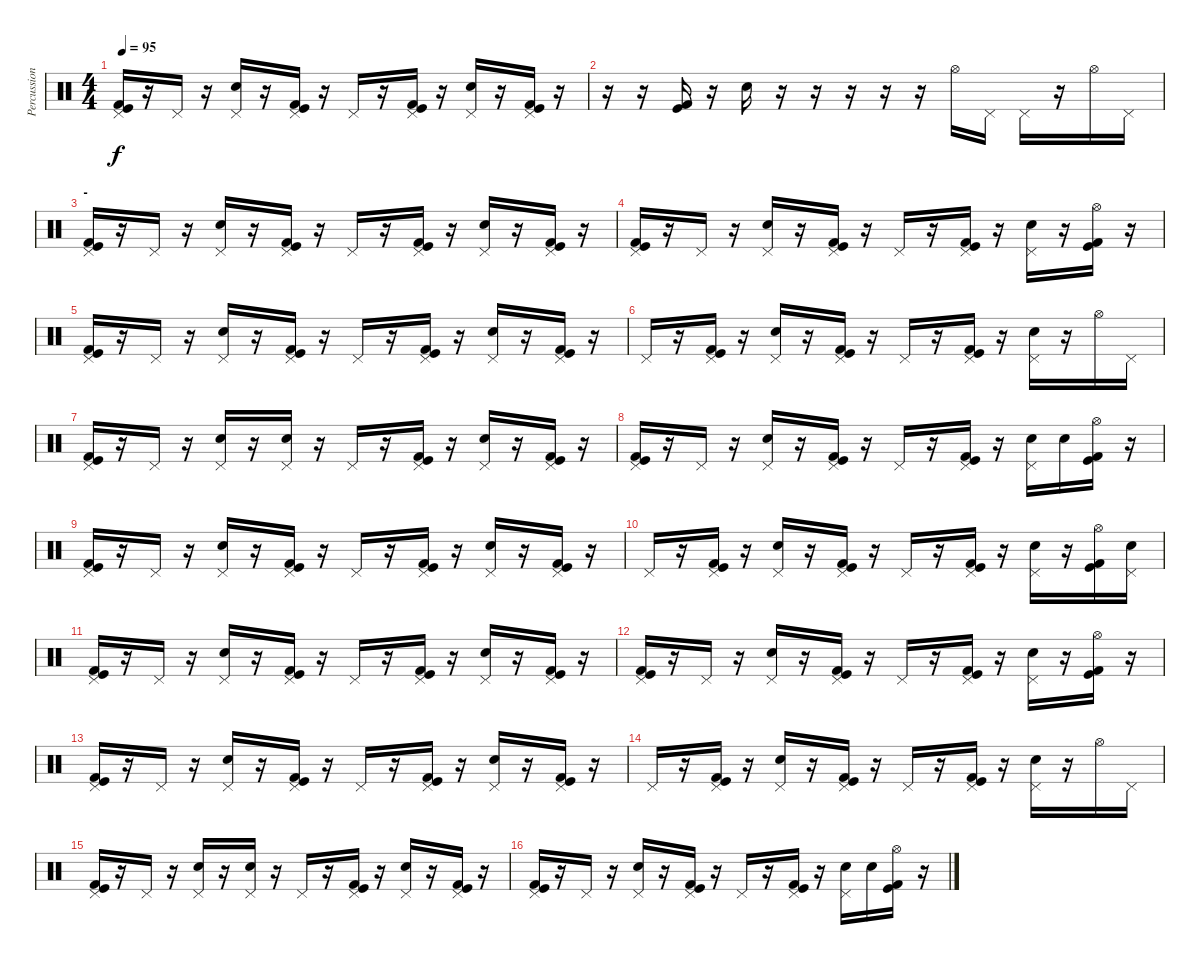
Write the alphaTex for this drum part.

\track ("Percussion" "Percussion") {instrument percussion}
\staff {score}
\articulation defaults
\ts (4 4)
\tempo 95
\clef neutral
\ks c
("Pedal Hi-Hat (hit)" "Kick (hit) 2" "Kick (hit)").16{dy f} r.16 "Pedal Hi-Hat (hit)".16 r.16 ("Pedal Hi-Hat (hit)" "Snare (hit) 2").16 r.16 ("Pedal Hi-Hat (hit)" "Kick (hit) 2" "Kick (hit)").16 r.16 "Pedal Hi-Hat (hit)".16 r.16 ("Pedal Hi-Hat (hit)" "Kick (hit) 2" "Kick (hit)").16 r.16 ("Pedal Hi-Hat (hit)" "Snare (hit) 2").16 r.16 ("Pedal Hi-Hat (hit)" "Kick (hit) 2" "Kick (hit)").16 r.16 |
r.16 r.16 ("Kick (hit) 2" "Kick (hit)").16 r.16 "Snare (hit) 2".16 r.16 r.16 r.16 r.16 r.16 "Hi-Hat (open)".16 "Pedal Hi-Hat (hit)".16 "Pedal Hi-Hat (hit)".16 r.16 "Hi-Hat (open)".16 "Pedal Hi-Hat (hit)".16 |
\section ("" "-")
("Pedal Hi-Hat (hit)" "Kick (hit) 2" "Kick (hit)").16 r.16 "Pedal Hi-Hat (hit)".16 r.16 ("Pedal Hi-Hat (hit)" "Snare (hit) 2").16 r.16 ("Pedal Hi-Hat (hit)" "Kick (hit) 2" "Kick (hit)").16 r.16 "Pedal Hi-Hat (hit)".16 r.16 ("Pedal Hi-Hat (hit)" "Kick (hit) 2" "Kick (hit)").16 r.16 ("Pedal Hi-Hat (hit)" "Snare (hit) 2").16 r.16 ("Pedal Hi-Hat (hit)" "Kick (hit) 2" "Kick (hit)").16 r.16 |
("Pedal Hi-Hat (hit)" "Kick (hit) 2" "Kick (hit)").16 r.16 "Pedal Hi-Hat (hit)".16 r.16 ("Pedal Hi-Hat (hit)" "Snare (hit) 2").16 r.16 ("Pedal Hi-Hat (hit)" "Kick (hit) 2" "Kick (hit)").16 r.16 "Pedal Hi-Hat (hit)".16 r.16 ("Pedal Hi-Hat (hit)" "Kick (hit) 2" "Kick (hit)").16 r.16 ("Pedal Hi-Hat (hit)" "Snare (hit) 2").16 r.16 ("Hi-Hat (open)" "Kick (hit) 2" "Kick (hit)").16 r.16 |
("Pedal Hi-Hat (hit)" "Kick (hit) 2" "Kick (hit)").16 r.16 "Pedal Hi-Hat (hit)".16 r.16 ("Pedal Hi-Hat (hit)" "Snare (hit) 2").16 r.16 ("Pedal Hi-Hat (hit)" "Kick (hit) 2" "Kick (hit)").16 r.16 "Pedal Hi-Hat (hit)".16 r.16 ("Pedal Hi-Hat (hit)" "Kick (hit) 2" "Kick (hit)").16 r.16 ("Pedal Hi-Hat (hit)" "Snare (hit) 2").16 r.16 ("Pedal Hi-Hat (hit)" "Kick (hit) 2" "Kick (hit)").16 r.16 |
"Pedal Hi-Hat (hit)".16 r.16 ("Pedal Hi-Hat (hit)" "Kick (hit) 2" "Kick (hit)").16 r.16 ("Pedal Hi-Hat (hit)" "Snare (hit) 2").16 r.16 ("Pedal Hi-Hat (hit)" "Kick (hit) 2" "Kick (hit)").16 r.16 "Pedal Hi-Hat (hit)".16 r.16 ("Pedal Hi-Hat (hit)" "Kick (hit) 2" "Kick (hit)").16 r.16 ("Pedal Hi-Hat (hit)" "Snare (hit) 2").16 r.16 "Hi-Hat (open)".16 "Pedal Hi-Hat (hit)".16 |
("Pedal Hi-Hat (hit)" "Kick (hit) 2" "Kick (hit)").16 r.16 "Pedal Hi-Hat (hit)".16 r.16 ("Pedal Hi-Hat (hit)" "Snare (hit) 2").16 r.16 ("Pedal Hi-Hat (hit)" "Snare (hit) 2").16 r.16 "Pedal Hi-Hat (hit)".16 r.16 ("Pedal Hi-Hat (hit)" "Kick (hit) 2" "Kick (hit)").16 r.16 ("Pedal Hi-Hat (hit)" "Snare (hit) 2").16 r.16 ("Pedal Hi-Hat (hit)" "Kick (hit) 2" "Kick (hit)").16 r.16 |
("Pedal Hi-Hat (hit)" "Kick (hit) 2" "Kick (hit)").16 r.16 "Pedal Hi-Hat (hit)".16 r.16 ("Pedal Hi-Hat (hit)" "Snare (hit) 2").16 r.16 ("Pedal Hi-Hat (hit)" "Kick (hit) 2" "Kick (hit)").16 r.16 "Pedal Hi-Hat (hit)".16 r.16 ("Pedal Hi-Hat (hit)" "Kick (hit) 2" "Kick (hit)").16 r.16 ("Pedal Hi-Hat (hit)" "Snare (hit) 2").16 "Snare (hit) 2".16 ("Hi-Hat (open)" "Kick (hit) 2" "Kick (hit)").16 r.16 |
("Pedal Hi-Hat (hit)" "Kick (hit) 2" "Kick (hit)").16 r.16 "Pedal Hi-Hat (hit)".16 r.16 ("Pedal Hi-Hat (hit)" "Snare (hit) 2").16 r.16 ("Pedal Hi-Hat (hit)" "Kick (hit) 2" "Kick (hit)").16 r.16 "Pedal Hi-Hat (hit)".16 r.16 ("Pedal Hi-Hat (hit)" "Kick (hit) 2" "Kick (hit)").16 r.16 ("Pedal Hi-Hat (hit)" "Snare (hit) 2").16 r.16 ("Pedal Hi-Hat (hit)" "Kick (hit) 2" "Kick (hit)").16 r.16 |
"Pedal Hi-Hat (hit)".16 r.16 ("Pedal Hi-Hat (hit)" "Kick (hit) 2" "Kick (hit)").16 r.16 ("Pedal Hi-Hat (hit)" "Snare (hit) 2").16 r.16 ("Pedal Hi-Hat (hit)" "Kick (hit) 2" "Kick (hit)").16 r.16 "Pedal Hi-Hat (hit)".16 r.16 ("Pedal Hi-Hat (hit)" "Kick (hit) 2" "Kick (hit)").16 r.16 ("Pedal Hi-Hat (hit)" "Snare (hit) 2").16 r.16 ("Hi-Hat (open)" "Kick (hit) 2" "Kick (hit)").16 ("Pedal Hi-Hat (hit)" "Snare (hit) 2").16 |
("Pedal Hi-Hat (hit)" "Kick (hit) 2" "Kick (hit)").16 r.16 "Pedal Hi-Hat (hit)".16 r.16 ("Pedal Hi-Hat (hit)" "Snare (hit) 2").16 r.16 ("Pedal Hi-Hat (hit)" "Kick (hit) 2" "Kick (hit)").16 r.16 "Pedal Hi-Hat (hit)".16 r.16 ("Pedal Hi-Hat (hit)" "Kick (hit) 2" "Kick (hit)").16 r.16 ("Pedal Hi-Hat (hit)" "Snare (hit) 2").16 r.16 ("Pedal Hi-Hat (hit)" "Kick (hit) 2" "Kick (hit)").16 r.16 |
("Pedal Hi-Hat (hit)" "Kick (hit) 2" "Kick (hit)").16 r.16 "Pedal Hi-Hat (hit)".16 r.16 ("Pedal Hi-Hat (hit)" "Snare (hit) 2").16 r.16 ("Pedal Hi-Hat (hit)" "Kick (hit) 2" "Kick (hit)").16 r.16 "Pedal Hi-Hat (hit)".16 r.16 ("Pedal Hi-Hat (hit)" "Kick (hit) 2" "Kick (hit)").16 r.16 ("Pedal Hi-Hat (hit)" "Snare (hit) 2").16 r.16 ("Hi-Hat (open)" "Kick (hit) 2" "Kick (hit)").16 r.16 |
("Pedal Hi-Hat (hit)" "Kick (hit) 2" "Kick (hit)").16 r.16 "Pedal Hi-Hat (hit)".16 r.16 ("Pedal Hi-Hat (hit)" "Snare (hit) 2").16 r.16 ("Pedal Hi-Hat (hit)" "Kick (hit) 2" "Kick (hit)").16 r.16 "Pedal Hi-Hat (hit)".16 r.16 ("Pedal Hi-Hat (hit)" "Kick (hit) 2" "Kick (hit)").16 r.16 ("Pedal Hi-Hat (hit)" "Snare (hit) 2").16 r.16 ("Pedal Hi-Hat (hit)" "Kick (hit) 2" "Kick (hit)").16 r.16 |
"Pedal Hi-Hat (hit)".16 r.16 ("Pedal Hi-Hat (hit)" "Kick (hit) 2" "Kick (hit)").16 r.16 ("Pedal Hi-Hat (hit)" "Snare (hit) 2").16 r.16 ("Pedal Hi-Hat (hit)" "Kick (hit) 2" "Kick (hit)").16 r.16 "Pedal Hi-Hat (hit)".16 r.16 ("Pedal Hi-Hat (hit)" "Kick (hit) 2" "Kick (hit)").16 r.16 ("Pedal Hi-Hat (hit)" "Snare (hit) 2").16 r.16 "Hi-Hat (open)".16 "Pedal Hi-Hat (hit)".16 |
("Pedal Hi-Hat (hit)" "Kick (hit) 2" "Kick (hit)").16 r.16 "Pedal Hi-Hat (hit)".16 r.16 ("Pedal Hi-Hat (hit)" "Snare (hit) 2").16 r.16 ("Pedal Hi-Hat (hit)" "Snare (hit) 2").16 r.16 "Pedal Hi-Hat (hit)".16 r.16 ("Pedal Hi-Hat (hit)" "Kick (hit) 2" "Kick (hit)").16 r.16 ("Pedal Hi-Hat (hit)" "Snare (hit) 2").16 r.16 ("Pedal Hi-Hat (hit)" "Kick (hit) 2" "Kick (hit)").16 r.16 |
("Pedal Hi-Hat (hit)" "Kick (hit) 2" "Kick (hit)").16 r.16 "Pedal Hi-Hat (hit)".16 r.16 ("Pedal Hi-Hat (hit)" "Snare (hit) 2").16 r.16 ("Pedal Hi-Hat (hit)" "Kick (hit) 2" "Kick (hit)").16 r.16 "Pedal Hi-Hat (hit)".16 r.16 ("Pedal Hi-Hat (hit)" "Kick (hit) 2" "Kick (hit)").16 r.16 ("Pedal Hi-Hat (hit)" "Snare (hit) 2").16 "Snare (hit) 2".16 ("Hi-Hat (open)" "Kick (hit) 2" "Kick (hit)").16 r.16
